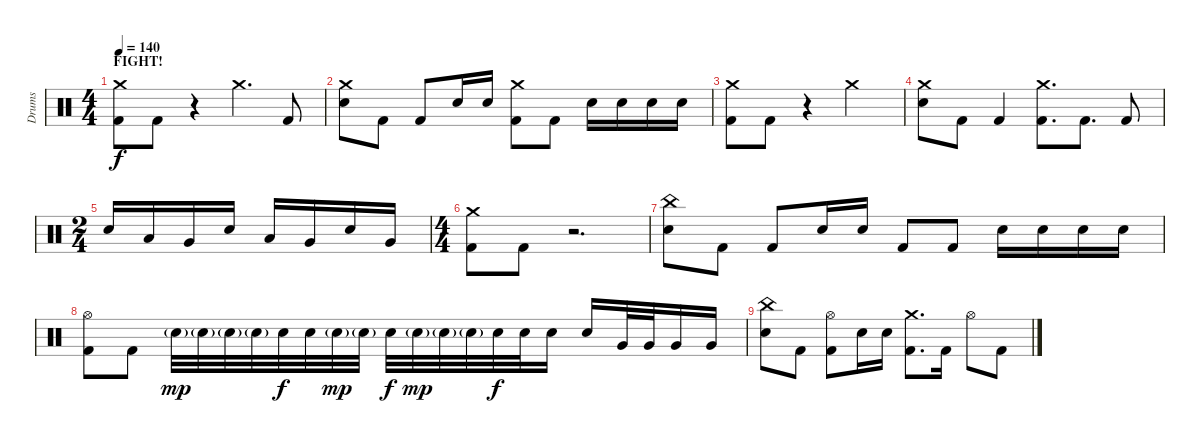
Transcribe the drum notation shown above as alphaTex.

\track ("Drums" "Drums") {instrument percussion}
\staff {score}
\articulation defaults
\ts (4 4)
\section ("" "FIGHT!")
\tempo 140
\clef neutral
\ks c
("Crash medium (hit)" "Kick (hit) 2").8{dy f} "Kick (hit) 2".8 r.4 "Crash medium (hit)".4{d} "Kick (hit) 2".8 |
("Crash medium (hit)" "Electric Snare (hit)").8 "Kick (hit) 2".8 "Kick (hit) 2".8 "Electric Snare (hit)".16 "Electric Snare (hit)".16 ("Crash medium (hit)" "Kick (hit) 2").8 "Kick (hit) 2".8 "Electric Snare (hit)".16 "Electric Snare (hit)".16 "Electric Snare (hit)".16 "Electric Snare (hit)".16 |
("Crash medium (hit)" "Kick (hit) 2").8 "Kick (hit) 2".8 r.4 "Crash medium (hit)".2 |
("Crash medium (hit)" "Electric Snare (hit)").8 "Kick (hit) 2".8 "Kick (hit) 2".4 ("Crash medium (hit)" "Kick (hit) 2").8{d} "Kick (hit) 2".8{d} "Kick (hit) 2".8 |
\ts (2 4)
"Electric Snare (hit)".16 "Low Tom (hit)".16 "Very Low Tom (hit)".16 "Electric Snare (hit)".16 "Low Tom (hit)".16 "Very Low Tom (hit)".16 "Electric Snare (hit)".16 "Very Low Tom (hit)".16 |
\ts (4 4)
("Crash medium (hit)" "Kick (hit) 2").8 "Kick (hit) 2".8 r.2{d} |
("China (hit)" "Electric Snare (hit)").8 "Kick (hit) 2".8 "Kick (hit) 2".8 "Electric Snare (hit)".16 "Electric Snare (hit)".16 "Kick (hit) 2".8 "Kick (hit) 2".8 "Electric Snare (hit)".16 "Electric Snare (hit)".16 "Electric Snare (hit)".16 "Electric Snare (hit)".16 |
("Hi-Hat (open)" "Kick (hit) 2").8 "Kick (hit) 2".8 "Electric Snare (hit)"{g}.32{dy mp} "Electric Snare (hit)"{g}.32 "Electric Snare (hit)"{g}.32 "Electric Snare (hit)"{g}.32 "Electric Snare (hit)".32{dy f} "Electric Snare (hit)".32 "Electric Snare (hit)"{g}.32{dy mp} "Electric Snare (hit)"{g}.32 "Electric Snare (hit)".32{dy f} "Electric Snare (hit)"{g}.32{dy mp} "Electric Snare (hit)"{g}.32 "Electric Snare (hit)"{g}.32 "Electric Snare (hit)".32{dy f} "Electric Snare (hit)".32 "Electric Snare (hit)".16 "Electric Snare (hit)".16 "Very Low Tom (hit)".32 "Very Low Tom (hit)".32 "Very Low Tom (hit)".16 "Very Low Tom (hit)".16 |
("China (hit)" "Electric Snare (hit)").8 "Kick (hit) 2".8 ("Hi-Hat (open)" "Kick (hit) 2").8 "Electric Snare (hit)".16 "Electric Snare (hit)".16 ("Crash medium (hit)" "Kick (hit) 2").8{d} "Kick (hit) 2".16 "Hi-Hat (open)".8 "Kick (hit) 2".8
